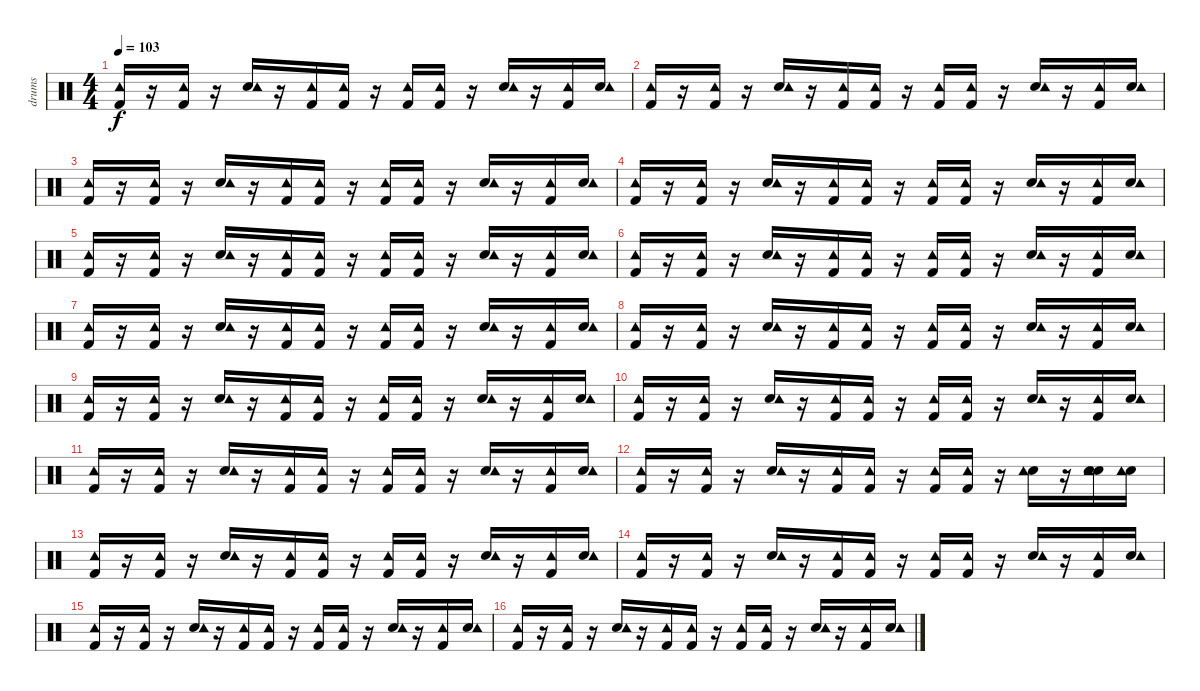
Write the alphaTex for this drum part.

\track ("drums" "drums") {instrument percussion}
\staff {score}
\articulation defaults
\ts (4 4)
\tempo 103
\clef neutral
\ks c
("Kick (hit) 2" "Tambourine (hit)").16{dy f} r.16 ("Kick (hit) 2" "Tambourine (hit)").16 r.16 ("Electric Snare (hit)" "Tambourine (hit)").16 r.16 ("Kick (hit) 2" "Tambourine (hit)").16 ("Kick (hit) 2" "Tambourine (hit)").16 r.16 ("Kick (hit) 2" "Tambourine (hit)").16 ("Kick (hit) 2" "Tambourine (hit)").16 r.16 ("Electric Snare (hit)" "Tambourine (hit)").16 r.16 ("Kick (hit) 2" "Tambourine (hit)").16 ("Electric Snare (hit)" "Tambourine (hit)").16 |
("Kick (hit) 2" "Tambourine (hit)").16 r.16 ("Kick (hit) 2" "Tambourine (hit)").16 r.16 ("Electric Snare (hit)" "Tambourine (hit)").16 r.16 ("Kick (hit) 2" "Tambourine (hit)").16 ("Kick (hit) 2" "Tambourine (hit)").16 r.16 ("Kick (hit) 2" "Tambourine (hit)").16 ("Kick (hit) 2" "Tambourine (hit)").16 r.16 ("Electric Snare (hit)" "Tambourine (hit)").16 r.16 ("Kick (hit) 2" "Tambourine (hit)").16 ("Electric Snare (hit)" "Tambourine (hit)").16 |
("Kick (hit) 2" "Tambourine (hit)").16 r.16 ("Kick (hit) 2" "Tambourine (hit)").16 r.16 ("Electric Snare (hit)" "Tambourine (hit)").16 r.16 ("Kick (hit) 2" "Tambourine (hit)").16 ("Kick (hit) 2" "Tambourine (hit)").16 r.16 ("Kick (hit) 2" "Tambourine (hit)").16 ("Kick (hit) 2" "Tambourine (hit)").16 r.16 ("Electric Snare (hit)" "Tambourine (hit)").16 r.16 ("Kick (hit) 2" "Tambourine (hit)").16 ("Electric Snare (hit)" "Tambourine (hit)").16 |
("Kick (hit) 2" "Tambourine (hit)").16 r.16 ("Kick (hit) 2" "Tambourine (hit)").16 r.16 ("Electric Snare (hit)" "Tambourine (hit)").16 r.16 ("Kick (hit) 2" "Tambourine (hit)").16 ("Kick (hit) 2" "Tambourine (hit)").16 r.16 ("Kick (hit) 2" "Tambourine (hit)").16 ("Kick (hit) 2" "Tambourine (hit)").16 r.16 ("Electric Snare (hit)" "Tambourine (hit)").16 r.16 ("Kick (hit) 2" "Tambourine (hit)").16 ("Electric Snare (hit)" "Tambourine (hit)").16 |
("Kick (hit) 2" "Tambourine (hit)").16 r.16 ("Kick (hit) 2" "Tambourine (hit)").16 r.16 ("Electric Snare (hit)" "Tambourine (hit)").16 r.16 ("Kick (hit) 2" "Tambourine (hit)").16 ("Kick (hit) 2" "Tambourine (hit)").16 r.16 ("Kick (hit) 2" "Tambourine (hit)").16 ("Kick (hit) 2" "Tambourine (hit)").16 r.16 ("Electric Snare (hit)" "Tambourine (hit)").16 r.16 ("Kick (hit) 2" "Tambourine (hit)").16 ("Electric Snare (hit)" "Tambourine (hit)").16 |
("Kick (hit) 2" "Tambourine (hit)").16 r.16 ("Kick (hit) 2" "Tambourine (hit)").16 r.16 ("Electric Snare (hit)" "Tambourine (hit)").16 r.16 ("Kick (hit) 2" "Tambourine (hit)").16 ("Kick (hit) 2" "Tambourine (hit)").16 r.16 ("Kick (hit) 2" "Tambourine (hit)").16 ("Kick (hit) 2" "Tambourine (hit)").16 r.16 ("Electric Snare (hit)" "Tambourine (hit)").16 r.16 ("Kick (hit) 2" "Tambourine (hit)").16 ("Electric Snare (hit)" "Tambourine (hit)").16 |
("Kick (hit) 2" "Tambourine (hit)").16 r.16 ("Kick (hit) 2" "Tambourine (hit)").16 r.16 ("Electric Snare (hit)" "Tambourine (hit)").16 r.16 ("Kick (hit) 2" "Tambourine (hit)").16 ("Kick (hit) 2" "Tambourine (hit)").16 r.16 ("Kick (hit) 2" "Tambourine (hit)").16 ("Kick (hit) 2" "Tambourine (hit)").16 r.16 ("Electric Snare (hit)" "Tambourine (hit)").16 r.16 ("Kick (hit) 2" "Tambourine (hit)").16 ("Electric Snare (hit)" "Tambourine (hit)").16 |
("Kick (hit) 2" "Tambourine (hit)").16 r.16 ("Kick (hit) 2" "Tambourine (hit)").16 r.16 ("Electric Snare (hit)" "Tambourine (hit)").16 r.16 ("Kick (hit) 2" "Tambourine (hit)").16 ("Kick (hit) 2" "Tambourine (hit)").16 r.16 ("Kick (hit) 2" "Tambourine (hit)").16 ("Kick (hit) 2" "Tambourine (hit)").16 r.16 ("Electric Snare (hit)" "Tambourine (hit)").16 r.16 ("Kick (hit) 2" "Tambourine (hit)").16 ("Electric Snare (hit)" "Tambourine (hit)").16 |
("Kick (hit) 2" "Tambourine (hit)").16 r.16 ("Kick (hit) 2" "Tambourine (hit)").16 r.16 ("Electric Snare (hit)" "Tambourine (hit)").16 r.16 ("Kick (hit) 2" "Tambourine (hit)").16 ("Kick (hit) 2" "Tambourine (hit)").16 r.16 ("Kick (hit) 2" "Tambourine (hit)").16 ("Kick (hit) 2" "Tambourine (hit)").16 r.16 ("Electric Snare (hit)" "Tambourine (hit)").16 r.16 ("Kick (hit) 2" "Tambourine (hit)").16 ("Electric Snare (hit)" "Tambourine (hit)").16 |
("Kick (hit) 2" "Tambourine (hit)").16 r.16 ("Kick (hit) 2" "Tambourine (hit)").16 r.16 ("Electric Snare (hit)" "Tambourine (hit)").16 r.16 ("Kick (hit) 2" "Tambourine (hit)").16 ("Kick (hit) 2" "Tambourine (hit)").16 r.16 ("Kick (hit) 2" "Tambourine (hit)").16 ("Kick (hit) 2" "Tambourine (hit)").16 r.16 ("Electric Snare (hit)" "Tambourine (hit)").16 r.16 ("Kick (hit) 2" "Tambourine (hit)").16 ("Electric Snare (hit)" "Tambourine (hit)").16 |
("Kick (hit) 2" "Tambourine (hit)").16 r.16 ("Kick (hit) 2" "Tambourine (hit)").16 r.16 ("Electric Snare (hit)" "Tambourine (hit)").16 r.16 ("Kick (hit) 2" "Tambourine (hit)").16 ("Kick (hit) 2" "Tambourine (hit)").16 r.16 ("Kick (hit) 2" "Tambourine (hit)").16 ("Kick (hit) 2" "Tambourine (hit)").16 r.16 ("Electric Snare (hit)" "Tambourine (hit)").16 r.16 ("Kick (hit) 2" "Tambourine (hit)").16 ("Electric Snare (hit)" "Tambourine (hit)").16 |
("Kick (hit) 2" "Tambourine (hit)").16 r.16 ("Kick (hit) 2" "Tambourine (hit)").16 r.16 ("Electric Snare (hit)" "Tambourine (hit)").16 r.16 ("Kick (hit) 2" "Tambourine (hit)").16 ("Kick (hit) 2" "Tambourine (hit)").16 r.16 ("Kick (hit) 2" "Tambourine (hit)").16 ("Kick (hit) 2" "Tambourine (hit)").16 r.16 ("Electric Snare (hit)" "Tambourine (hit)").16 r.16 ("Electric Snare (hit)" "Snare (hit) 2" "Tambourine (hit)").16 ("Electric Snare (hit)" "Tambourine (hit)").16 |
("Kick (hit) 2" "Tambourine (hit)").16 r.16 ("Kick (hit) 2" "Tambourine (hit)").16 r.16 ("Electric Snare (hit)" "Tambourine (hit)").16 r.16 ("Kick (hit) 2" "Tambourine (hit)").16 ("Kick (hit) 2" "Tambourine (hit)").16 r.16 ("Kick (hit) 2" "Tambourine (hit)").16 ("Kick (hit) 2" "Tambourine (hit)").16 r.16 ("Electric Snare (hit)" "Tambourine (hit)").16 r.16 ("Kick (hit) 2" "Tambourine (hit)").16 ("Electric Snare (hit)" "Tambourine (hit)").16 |
("Kick (hit) 2" "Tambourine (hit)").16 r.16 ("Kick (hit) 2" "Tambourine (hit)").16 r.16 ("Electric Snare (hit)" "Tambourine (hit)").16 r.16 ("Kick (hit) 2" "Tambourine (hit)").16 ("Kick (hit) 2" "Tambourine (hit)").16 r.16 ("Kick (hit) 2" "Tambourine (hit)").16 ("Kick (hit) 2" "Tambourine (hit)").16 r.16 ("Electric Snare (hit)" "Tambourine (hit)").16 r.16 ("Kick (hit) 2" "Tambourine (hit)").16 ("Electric Snare (hit)" "Tambourine (hit)").16 |
("Kick (hit) 2" "Tambourine (hit)").16 r.16 ("Kick (hit) 2" "Tambourine (hit)").16 r.16 ("Electric Snare (hit)" "Tambourine (hit)").16 r.16 ("Kick (hit) 2" "Tambourine (hit)").16 ("Kick (hit) 2" "Tambourine (hit)").16 r.16 ("Kick (hit) 2" "Tambourine (hit)").16 ("Kick (hit) 2" "Tambourine (hit)").16 r.16 ("Electric Snare (hit)" "Tambourine (hit)").16 r.16 ("Kick (hit) 2" "Tambourine (hit)").16 ("Electric Snare (hit)" "Tambourine (hit)").16 |
("Kick (hit) 2" "Tambourine (hit)").16 r.16 ("Kick (hit) 2" "Tambourine (hit)").16 r.16 ("Electric Snare (hit)" "Tambourine (hit)").16 r.16 ("Kick (hit) 2" "Tambourine (hit)").16 ("Kick (hit) 2" "Tambourine (hit)").16 r.16 ("Kick (hit) 2" "Tambourine (hit)").16 ("Kick (hit) 2" "Tambourine (hit)").16 r.16 ("Electric Snare (hit)" "Tambourine (hit)").16 r.16 ("Kick (hit) 2" "Tambourine (hit)").16 ("Electric Snare (hit)" "Tambourine (hit)").16
